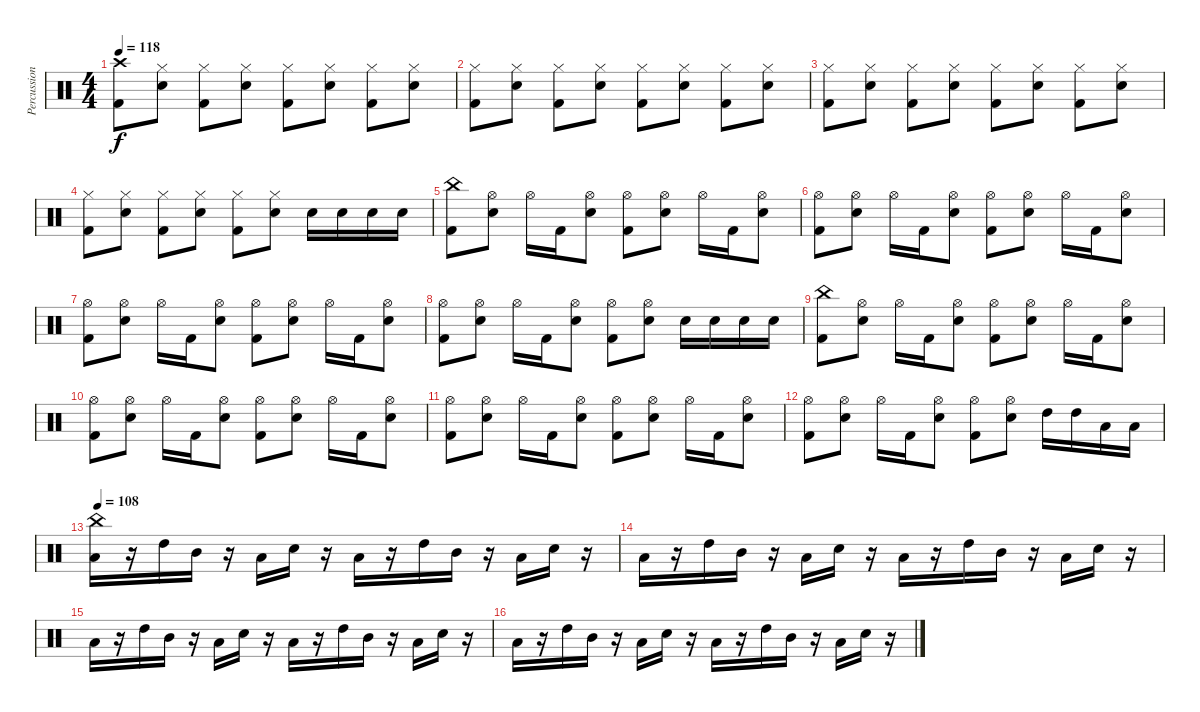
\track ("Percussion" "Percussion") {instrument percussion}
\staff {score}
\articulation defaults
\ts (4 4)
\tempo 118
\clef neutral
\ks c
("Crash high (hit)" "Kick (hit) 2").8{dy f} ("Hi-Hat (closed)" "Snare (hit) 2").8 ("Hi-Hat (closed)" "Kick (hit) 2").8 ("Hi-Hat (closed)" "Snare (hit) 2").8 ("Hi-Hat (closed)" "Kick (hit) 2").8 ("Hi-Hat (closed)" "Snare (hit) 2").8 ("Hi-Hat (closed)" "Kick (hit) 2").8 ("Hi-Hat (closed)" "Snare (hit) 2").8 |
("Hi-Hat (closed)" "Kick (hit) 2").8 ("Hi-Hat (closed)" "Snare (hit) 2").8 ("Hi-Hat (closed)" "Kick (hit) 2").8 ("Hi-Hat (closed)" "Snare (hit) 2").8 ("Hi-Hat (closed)" "Kick (hit) 2").8 ("Hi-Hat (closed)" "Snare (hit) 2").8 ("Hi-Hat (closed)" "Kick (hit) 2").8 ("Hi-Hat (closed)" "Snare (hit) 2").8 |
("Hi-Hat (closed)" "Kick (hit) 2").8 ("Hi-Hat (closed)" "Snare (hit) 2").8 ("Hi-Hat (closed)" "Kick (hit) 2").8 ("Hi-Hat (closed)" "Snare (hit) 2").8 ("Hi-Hat (closed)" "Kick (hit) 2").8 ("Hi-Hat (closed)" "Snare (hit) 2").8 ("Hi-Hat (closed)" "Kick (hit) 2").8 ("Hi-Hat (closed)" "Snare (hit) 2").8 |
("Hi-Hat (closed)" "Kick (hit) 2").8 ("Hi-Hat (closed)" "Snare (hit) 2").8 ("Hi-Hat (closed)" "Kick (hit) 2").8 ("Hi-Hat (closed)" "Snare (hit) 2").8 ("Hi-Hat (closed)" "Kick (hit) 2").8 ("Hi-Hat (closed)" "Snare (hit) 2").8 "Snare (hit) 2".16 "Snare (hit) 2".16 "Snare (hit) 2".16 "Snare (hit) 2".16 |
("China (hit)" "Kick (hit) 2").8 ("Hi-Hat (open)" "Snare (hit) 2").8 "Hi-Hat (open)".16 "Kick (hit) 2".16 ("Hi-Hat (open)" "Snare (hit) 2").8 ("Hi-Hat (open)" "Kick (hit) 2").8 ("Hi-Hat (open)" "Snare (hit) 2").8 "Hi-Hat (open)".16 "Kick (hit) 2".16 ("Hi-Hat (open)" "Snare (hit) 2").8 |
("Hi-Hat (open)" "Kick (hit) 2").8 ("Hi-Hat (open)" "Snare (hit) 2").8 "Hi-Hat (open)".16 "Kick (hit) 2".16 ("Hi-Hat (open)" "Snare (hit) 2").8 ("Hi-Hat (open)" "Kick (hit) 2").8 ("Hi-Hat (open)" "Snare (hit) 2").8 "Hi-Hat (open)".16 "Kick (hit) 2".16 ("Hi-Hat (open)" "Snare (hit) 2").8 |
("Hi-Hat (open)" "Kick (hit) 2").8 ("Hi-Hat (open)" "Snare (hit) 2").8 "Hi-Hat (open)".16 "Kick (hit) 2".16 ("Hi-Hat (open)" "Snare (hit) 2").8 ("Hi-Hat (open)" "Kick (hit) 2").8 ("Hi-Hat (open)" "Snare (hit) 2").8 "Hi-Hat (open)".16 "Kick (hit) 2".16 ("Hi-Hat (open)" "Snare (hit) 2").8 |
("Hi-Hat (open)" "Kick (hit) 2").8 ("Hi-Hat (open)" "Snare (hit) 2").8 "Hi-Hat (open)".16 "Kick (hit) 2".16 ("Hi-Hat (open)" "Snare (hit) 2").8 ("Hi-Hat (open)" "Kick (hit) 2").8 ("Hi-Hat (open)" "Snare (hit) 2").8 "Snare (hit) 2".16 "Snare (hit) 2".16 "Snare (hit) 2".16 "Snare (hit) 2".16 |
("China (hit)" "Kick (hit) 2").8 ("Hi-Hat (open)" "Snare (hit) 2").8 "Hi-Hat (open)".16 "Kick (hit) 2".16 ("Hi-Hat (open)" "Snare (hit) 2").8 ("Hi-Hat (open)" "Kick (hit) 2").8 ("Hi-Hat (open)" "Snare (hit) 2").8 "Hi-Hat (open)".16 "Kick (hit) 2".16 ("Hi-Hat (open)" "Snare (hit) 2").8 |
("Hi-Hat (open)" "Kick (hit) 2").8 ("Hi-Hat (open)" "Snare (hit) 2").8 "Hi-Hat (open)".16 "Kick (hit) 2".16 ("Hi-Hat (open)" "Snare (hit) 2").8 ("Hi-Hat (open)" "Kick (hit) 2").8 ("Hi-Hat (open)" "Snare (hit) 2").8 "Hi-Hat (open)".16 "Kick (hit) 2".16 ("Hi-Hat (open)" "Snare (hit) 2").8 |
("Hi-Hat (open)" "Kick (hit) 2").8 ("Hi-Hat (open)" "Snare (hit) 2").8 "Hi-Hat (open)".16 "Kick (hit) 2".16 ("Hi-Hat (open)" "Snare (hit) 2").8 ("Hi-Hat (open)" "Kick (hit) 2").8 ("Hi-Hat (open)" "Snare (hit) 2").8 "Hi-Hat (open)".16 "Kick (hit) 2".16 ("Hi-Hat (open)" "Snare (hit) 2").8 |
("Hi-Hat (open)" "Kick (hit) 2").8 ("Hi-Hat (open)" "Snare (hit) 2").8 "Hi-Hat (open)".16 "Kick (hit) 2".16 ("Hi-Hat (open)" "Snare (hit) 2").8 ("Hi-Hat (open)" "Kick (hit) 2").8 ("Hi-Hat (open)" "Snare (hit) 2").8 "High Tom (hit)".16 "High Tom (hit)".16 "Low Tom (hit)".16 "Low Tom (hit)".16 |
\tempo 108
("China (hit)" "Low Tom (hit)").16 r.16 "High Tom (hit)".16 "Mid Tom (hit)".16 r.16 "Low Tom (hit)".16 "Snare (hit) 2".16 r.16 "Low Tom (hit)".16 r.16 "High Tom (hit)".16 "Mid Tom (hit)".16 r.16 "Low Tom (hit)".16 "Snare (hit) 2".16 r.16 |
"Low Tom (hit)".16 r.16 "High Tom (hit)".16 "Mid Tom (hit)".16 r.16 "Low Tom (hit)".16 "Snare (hit) 2".16 r.16 "Low Tom (hit)".16 r.16 "High Tom (hit)".16 "Mid Tom (hit)".16 r.16 "Low Tom (hit)".16 "Snare (hit) 2".16 r.16 |
"Low Tom (hit)".16 r.16 "High Tom (hit)".16 "Mid Tom (hit)".16 r.16 "Low Tom (hit)".16 "Snare (hit) 2".16 r.16 "Low Tom (hit)".16 r.16 "High Tom (hit)".16 "Mid Tom (hit)".16 r.16 "Low Tom (hit)".16 "Snare (hit) 2".16 r.16 |
"Low Tom (hit)".16 r.16 "High Tom (hit)".16 "Mid Tom (hit)".16 r.16 "Low Tom (hit)".16 "Snare (hit) 2".16 r.16 "Low Tom (hit)".16 r.16 "High Tom (hit)".16 "Mid Tom (hit)".16 r.16 "Low Tom (hit)".16 "Snare (hit) 2".16 r.16
